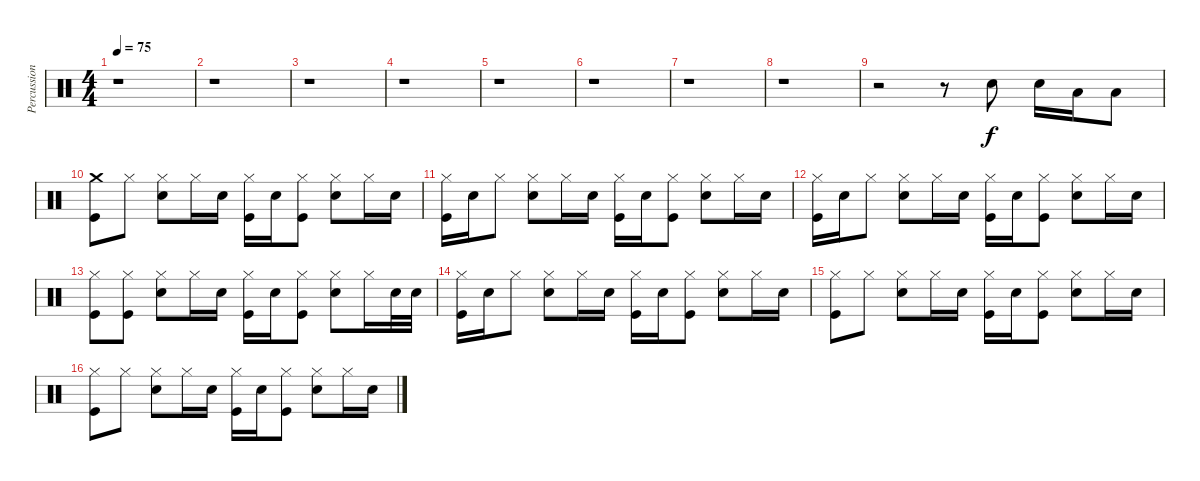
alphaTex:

\track ("Percussion" "Percussion") {instrument percussion}
\staff {score}
\articulation defaults
\ts (4 4)
\tempo 75
\clef neutral
\ks c
r.1{dy f} |
r.1 |
r.1 |
r.1 |
r.1 |
r.1 |
r.1 |
r.1 |
r.2 r.8 "Snare (hit) 2".8 "Snare (hit) 2".16 "Low Tom (hit)".16 "Low Tom (hit)".8 |
("Crash medium (hit)" "Kick (hit)").8 "Hi-Hat (closed)".8 ("Hi-Hat (closed)" "Snare (hit) 2").8 "Hi-Hat (closed)".16 "Snare (hit) 2".16 ("Hi-Hat (closed)" "Kick (hit)").16 "Snare (hit) 2".16 ("Hi-Hat (closed)" "Kick (hit)").8 ("Hi-Hat (closed)" "Snare (hit) 2").8 "Hi-Hat (closed)".16 "Snare (hit) 2".16 |
("Hi-Hat (closed)" "Kick (hit)").16 "Snare (hit) 2".16 "Hi-Hat (closed)".8 ("Hi-Hat (closed)" "Snare (hit) 2").8 "Hi-Hat (closed)".16 "Snare (hit) 2".16 ("Hi-Hat (closed)" "Kick (hit)").16 "Snare (hit) 2".16 ("Hi-Hat (closed)" "Kick (hit)").8 ("Hi-Hat (closed)" "Snare (hit) 2").8 "Hi-Hat (closed)".16 "Snare (hit) 2".16 |
("Hi-Hat (closed)" "Kick (hit)").16 "Snare (hit) 2".16 "Hi-Hat (closed)".8 ("Hi-Hat (closed)" "Snare (hit) 2").8 "Hi-Hat (closed)".16 "Snare (hit) 2".16 ("Hi-Hat (closed)" "Kick (hit)").16 "Snare (hit) 2".16 ("Hi-Hat (closed)" "Kick (hit)").8 ("Hi-Hat (closed)" "Snare (hit) 2").8 "Hi-Hat (closed)".16 "Snare (hit) 2".16 |
("Hi-Hat (closed)" "Kick (hit)").8 ("Hi-Hat (closed)" "Kick (hit)").8 ("Hi-Hat (closed)" "Snare (hit) 2").8 "Hi-Hat (closed)".16 "Snare (hit) 2".16 ("Hi-Hat (closed)" "Kick (hit)").16 "Snare (hit) 2".16 ("Hi-Hat (closed)" "Kick (hit)").8 ("Hi-Hat (closed)" "Snare (hit) 2").8 "Hi-Hat (closed)".16 "Snare (hit) 2".32 "Snare (hit) 2".32 |
("Hi-Hat (closed)" "Kick (hit)").16 "Snare (hit) 2".16 "Hi-Hat (closed)".8 ("Hi-Hat (closed)" "Snare (hit) 2").8 "Hi-Hat (closed)".16 "Snare (hit) 2".16 ("Hi-Hat (closed)" "Kick (hit)").16 "Snare (hit) 2".16 ("Hi-Hat (closed)" "Kick (hit)").8 ("Hi-Hat (closed)" "Snare (hit) 2").8 "Hi-Hat (closed)".16 "Snare (hit) 2".16 |
("Hi-Hat (closed)" "Kick (hit)").8 "Hi-Hat (closed)".8 ("Hi-Hat (closed)" "Snare (hit) 2").8 "Hi-Hat (closed)".16 "Snare (hit) 2".16 ("Hi-Hat (closed)" "Kick (hit)").16 "Snare (hit) 2".16 ("Hi-Hat (closed)" "Kick (hit)").8 ("Hi-Hat (closed)" "Snare (hit) 2").8 "Hi-Hat (closed)".16 "Snare (hit) 2".16 |
("Hi-Hat (closed)" "Kick (hit)").8 "Hi-Hat (closed)".8 ("Hi-Hat (closed)" "Snare (hit) 2").8 "Hi-Hat (closed)".16 "Snare (hit) 2".16 ("Hi-Hat (closed)" "Kick (hit)").16 "Snare (hit) 2".16 ("Hi-Hat (closed)" "Kick (hit)").8 ("Hi-Hat (closed)" "Snare (hit) 2").8 "Hi-Hat (closed)".16 "Snare (hit) 2".16
